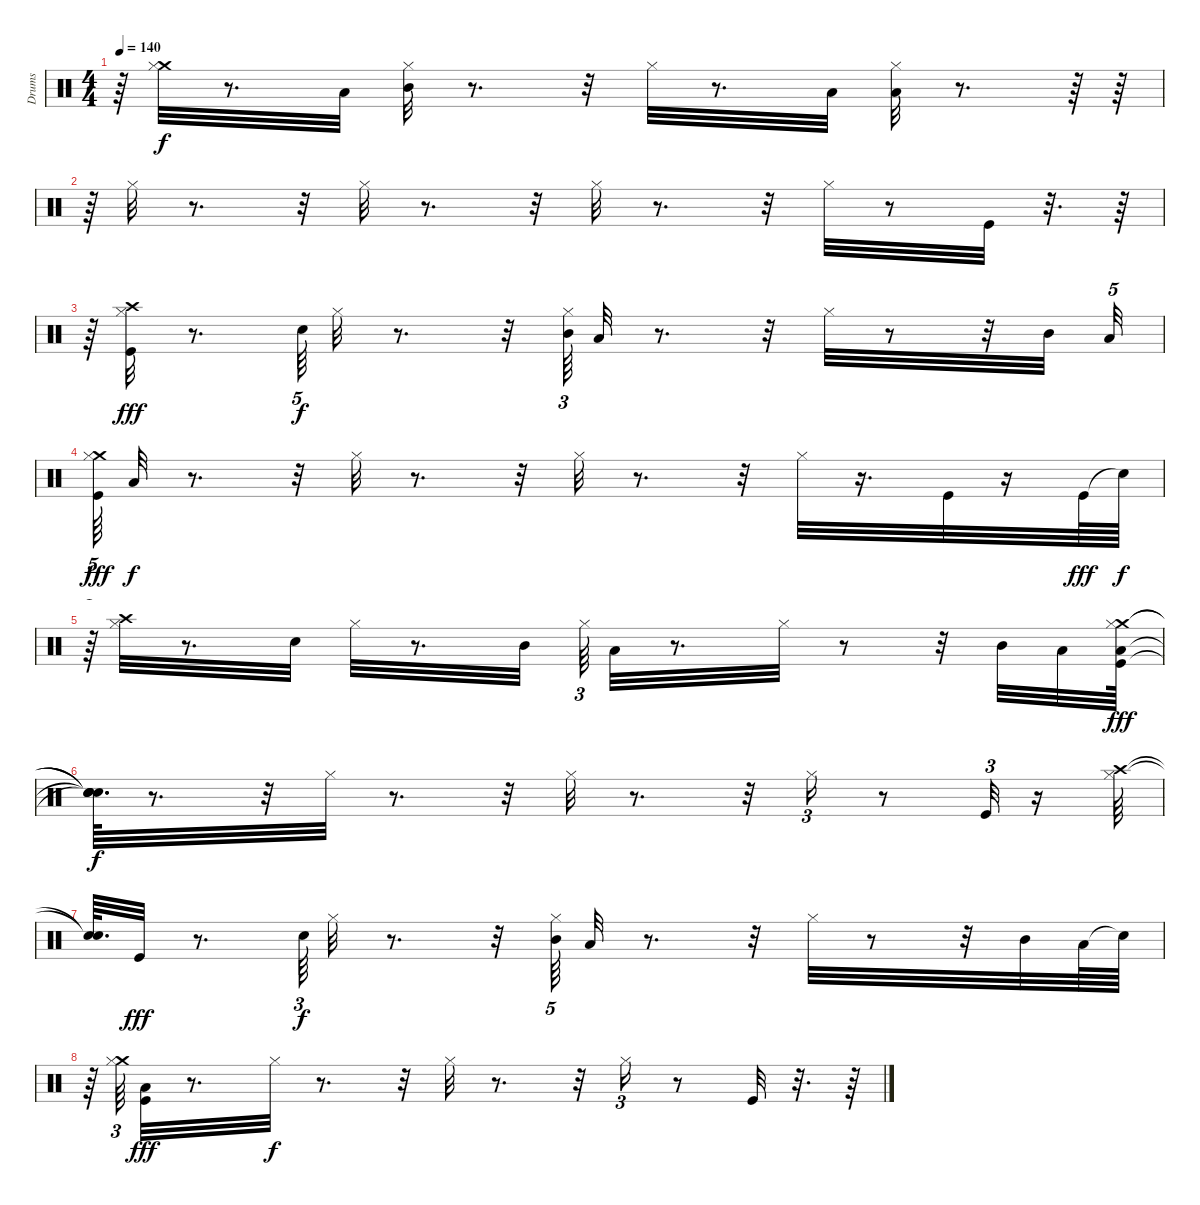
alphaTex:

\track ("Drums" "Drums") {instrument percussion}
\staff {score}
\articulation defaults
\ts (4 4)
\tempo 140
\clef neutral
\ks c
r.64{dy f} ("Crash medium (hit)" "Hi-Hat (closed)").32 r.8{d} "Low Tom (hit)".32 ("Hi-Hat (closed)" "Mid Tom (hit)").32 r.8{d} r.32 "Hi-Hat (closed)".32 r.8{d} "Low Floor Tom (hit)".32 ("Hi-Hat (closed)" "Low Tom (hit)").32 r.8{d} r.64 r.64 |
r.64 "Hi-Hat (closed)".32 r.8{d} r.32 "Hi-Hat (closed)".32 r.8{d} r.32 "Hi-Hat (closed)".32 r.8{d} r.32 "Hi-Hat (closed)".32 r.8 "Kick (hit)".32 r.32{d} r.64 |
r.64 ("Hi-Hat (closed)" "Kick (hit)" "Crash high (hit)").32{dy fff} r.8{d} "Electric Snare (hit)".64{tu (5 4) dy f} "Hi-Hat (closed)".32 r.8{d} r.32 ("Mid Tom (hit)" "Hi-Hat (closed)").64{tu (3 2)} "Low Tom (hit)".32 r.8{d} r.32 "Hi-Hat (closed)".32 r.8 r.32 "Mid Tom (hit)".32 "Low Tom (hit)".32{tu (5 4)} |
("Kick (hit)" "Crash medium (hit)" "Hi-Hat (closed)").64{tu (5 4) dy fff} "Low Floor Tom (hit)".32{dy f} r.8{d} r.32 "Hi-Hat (closed)".32 r.8{d} r.32 "Hi-Hat (closed)".32 r.8{d} r.32 "Hi-Hat (closed)".32 r.16{d} "Kick (hit)".32 r.16 "Kick (hit)".64{dy fff} "Snare (hit)"{t}.64{dy f} |
r.64{tu (5 4)} ("Hi-Hat (closed)" "Crash high (hit)").32 r.8{d} "Electric Snare (hit)".32 "Hi-Hat (closed)".32 r.8{d} "Mid Tom (hit)".32 "Hi-Hat (closed)".64{tu (3 2)} "Low Tom (hit)".32 r.8{d} "Hi-Hat (closed)".32 r.8 r.32 "Mid Tom (hit)".32 "Low Tom (hit)".32 ("Kick (hit)" "Crash medium (hit)" "Hi-Hat (closed)" "Low Floor Tom (hit)").64{dy fff} |
("Snare (hit)"{t} "Snare (hit)"{t} "Snare (hit)"{t} "Snare (hit)"{t}).64{d dy f} r.8{d} r.32 "Hi-Hat (closed)".32 r.8{d} r.32 "Hi-Hat (closed)".32 r.8{d} r.32 "Hi-Hat (closed)".16{tu (3 2)} r.8 "Kick (hit)".32{tu (3 2)} r.16 ("Hi-Hat (closed)" "Crash high (hit)").64 |
("Snare (hit)"{t} "Snare (hit)"{t}).64{d} "Kick (hit)".32{dy fff} r.8{d} "Electric Snare (hit)".64{tu (3 2) dy f} "Hi-Hat (closed)".32 r.8{d} r.32 ("Hi-Hat (closed)" "Mid Tom (hit)").64{tu (5 4)} "Low Tom (hit)".32 r.8{d} r.32 "Hi-Hat (closed)".32 r.8 r.32 "Mid Tom (hit)".32 "Low Tom (hit)".64 "Snare (hit)"{t}.64 |
r.64 ("Crash medium (hit)" "Hi-Hat (closed)").64{tu (3 2)} ("Kick (hit)" "Low Floor Tom (hit)").32{dy fff} r.8{d} "Hi-Hat (closed)".32{dy f} r.8{d} r.32 "Hi-Hat (closed)".32 r.8{d} r.32 "Hi-Hat (closed)".16{tu (3 2)} r.8 "Kick (hit)".32 r.32{d} r.64
